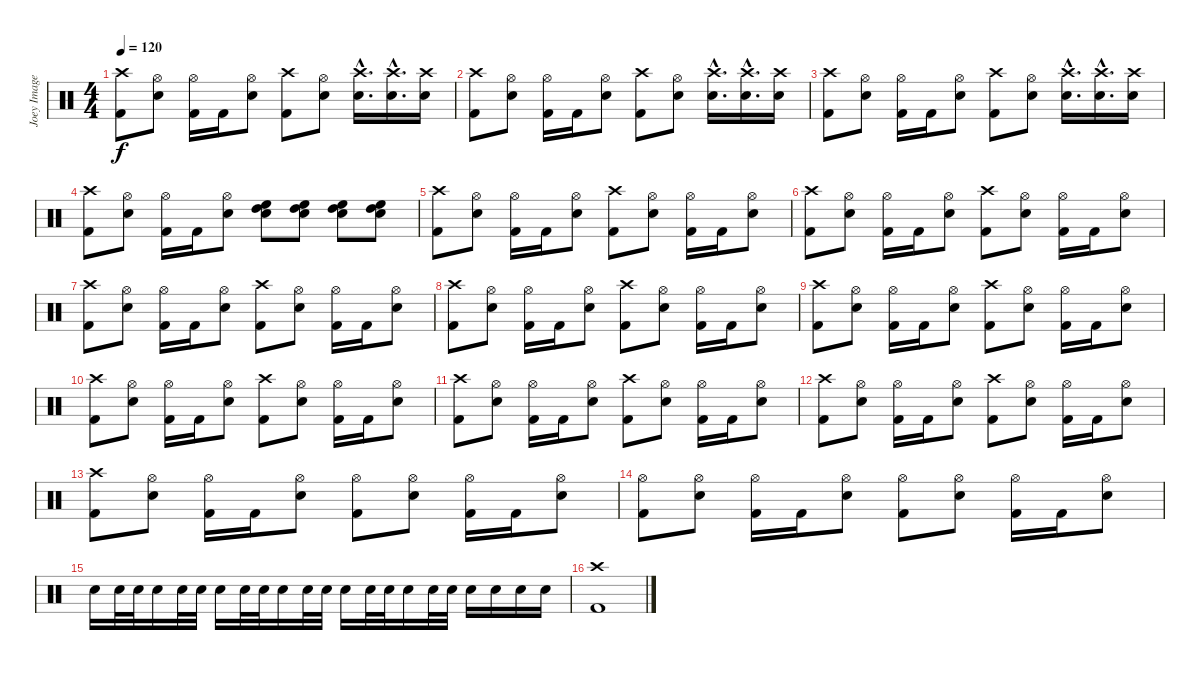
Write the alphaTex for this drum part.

\track ("Joey Image" "Joey Image") {instrument percussion}
\staff {score}
\articulation defaults
\ts (4 4)
\tempo 120
\clef neutral
\ks c
("Crash high (hit)" "Kick (hit) 2").8{dy f} ("Hi-Hat (open)" "Snare (hit) 2").8 ("Hi-Hat (open)" "Kick (hit) 2").16 "Kick (hit) 2".16 ("Hi-Hat (open)" "Snare (hit) 2").8 ("Crash high (hit)" "Kick (hit) 2").8 ("Hi-Hat (open)" "Snare (hit) 2").8 ("Crash high (hit)"{hac} "Snare (hit) 2"{hac}).16{d} ("Crash high (hit)"{hac} "Snare (hit) 2"{hac}).16{d} ("Crash high (hit)" "Snare (hit) 2").16 |
("Crash high (hit)" "Kick (hit) 2").8 ("Hi-Hat (open)" "Snare (hit) 2").8 ("Hi-Hat (open)" "Kick (hit) 2").16 "Kick (hit) 2".16 ("Hi-Hat (open)" "Snare (hit) 2").8 ("Crash high (hit)" "Kick (hit) 2").8 ("Hi-Hat (open)" "Snare (hit) 2").8 ("Crash high (hit)"{hac} "Snare (hit) 2"{hac}).16{d} ("Crash high (hit)"{hac} "Snare (hit) 2"{hac}).16{d} ("Crash high (hit)" "Snare (hit) 2").16 |
("Crash high (hit)" "Kick (hit) 2").8 ("Hi-Hat (open)" "Snare (hit) 2").8 ("Hi-Hat (open)" "Kick (hit) 2").16 "Kick (hit) 2".16 ("Hi-Hat (open)" "Snare (hit) 2").8 ("Crash high (hit)" "Kick (hit) 2").8 ("Hi-Hat (open)" "Snare (hit) 2").8 ("Crash high (hit)"{hac} "Snare (hit) 2"{hac}).16{d} ("Crash high (hit)"{hac} "Snare (hit) 2"{hac}).16{d} ("Crash high (hit)" "Snare (hit) 2").16 |
("Crash high (hit)" "Kick (hit) 2").8 ("Hi-Hat (open)" "Snare (hit) 2").8 ("Hi-Hat (open)" "Kick (hit) 2").16 "Kick (hit) 2".16 ("Hi-Hat (open)" "Snare (hit) 2").8 ("Snare (hit) 2" "High Tom (hit)" "High Floor Tom (hit)").8 ("Snare (hit) 2" "High Tom (hit)" "High Floor Tom (hit)").8 ("Snare (hit) 2" "High Tom (hit)" "High Floor Tom (hit)").8 ("Snare (hit) 2" "High Tom (hit)" "High Floor Tom (hit)").8 |
("Crash high (hit)" "Kick (hit) 2").8 ("Hi-Hat (open)" "Snare (hit) 2").8 ("Hi-Hat (open)" "Kick (hit) 2").16 "Kick (hit) 2".16 ("Hi-Hat (open)" "Snare (hit) 2").8 ("Crash high (hit)" "Kick (hit) 2").8 ("Hi-Hat (open)" "Snare (hit) 2").8 ("Hi-Hat (open)" "Kick (hit) 2").16 "Kick (hit) 2".16 ("Hi-Hat (open)" "Snare (hit) 2").8 |
("Crash high (hit)" "Kick (hit) 2").8 ("Hi-Hat (open)" "Snare (hit) 2").8 ("Hi-Hat (open)" "Kick (hit) 2").16 "Kick (hit) 2".16 ("Hi-Hat (open)" "Snare (hit) 2").8 ("Crash high (hit)" "Kick (hit) 2").8 ("Hi-Hat (open)" "Snare (hit) 2").8 ("Hi-Hat (open)" "Kick (hit) 2").16 "Kick (hit) 2".16 ("Hi-Hat (open)" "Snare (hit) 2").8 |
("Crash high (hit)" "Kick (hit) 2").8 ("Hi-Hat (open)" "Snare (hit) 2").8 ("Hi-Hat (open)" "Kick (hit) 2").16 "Kick (hit) 2".16 ("Hi-Hat (open)" "Snare (hit) 2").8 ("Crash high (hit)" "Kick (hit) 2").8 ("Hi-Hat (open)" "Snare (hit) 2").8 ("Hi-Hat (open)" "Kick (hit) 2").16 "Kick (hit) 2".16 ("Hi-Hat (open)" "Snare (hit) 2").8 |
("Crash high (hit)" "Kick (hit) 2").8 ("Hi-Hat (open)" "Snare (hit) 2").8 ("Hi-Hat (open)" "Kick (hit) 2").16 "Kick (hit) 2".16 ("Hi-Hat (open)" "Snare (hit) 2").8 ("Crash high (hit)" "Kick (hit) 2").8 ("Hi-Hat (open)" "Snare (hit) 2").8 ("Hi-Hat (open)" "Kick (hit) 2").16 "Kick (hit) 2".16 ("Hi-Hat (open)" "Snare (hit) 2").8 |
("Crash high (hit)" "Kick (hit) 2").8 ("Hi-Hat (open)" "Snare (hit) 2").8 ("Hi-Hat (open)" "Kick (hit) 2").16 "Kick (hit) 2".16 ("Hi-Hat (open)" "Snare (hit) 2").8 ("Crash high (hit)" "Kick (hit) 2").8 ("Hi-Hat (open)" "Snare (hit) 2").8 ("Hi-Hat (open)" "Kick (hit) 2").16 "Kick (hit) 2".16 ("Hi-Hat (open)" "Snare (hit) 2").8 |
("Crash high (hit)" "Kick (hit) 2").8 ("Hi-Hat (open)" "Snare (hit) 2").8 ("Hi-Hat (open)" "Kick (hit) 2").16 "Kick (hit) 2".16 ("Hi-Hat (open)" "Snare (hit) 2").8 ("Crash high (hit)" "Kick (hit) 2").8 ("Hi-Hat (open)" "Snare (hit) 2").8 ("Hi-Hat (open)" "Kick (hit) 2").16 "Kick (hit) 2".16 ("Hi-Hat (open)" "Snare (hit) 2").8 |
("Crash high (hit)" "Kick (hit) 2").8 ("Hi-Hat (open)" "Snare (hit) 2").8 ("Hi-Hat (open)" "Kick (hit) 2").16 "Kick (hit) 2".16 ("Hi-Hat (open)" "Snare (hit) 2").8 ("Crash high (hit)" "Kick (hit) 2").8 ("Hi-Hat (open)" "Snare (hit) 2").8 ("Hi-Hat (open)" "Kick (hit) 2").16 "Kick (hit) 2".16 ("Hi-Hat (open)" "Snare (hit) 2").8 |
("Crash high (hit)" "Kick (hit) 2").8 ("Hi-Hat (open)" "Snare (hit) 2").8 ("Hi-Hat (open)" "Kick (hit) 2").16 "Kick (hit) 2".16 ("Hi-Hat (open)" "Snare (hit) 2").8 ("Crash high (hit)" "Kick (hit) 2").8 ("Hi-Hat (open)" "Snare (hit) 2").8 ("Hi-Hat (open)" "Kick (hit) 2").16 "Kick (hit) 2".16 ("Hi-Hat (open)" "Snare (hit) 2").8 |
("Crash high (hit)" "Kick (hit) 2").8 ("Hi-Hat (open)" "Snare (hit) 2").8 ("Hi-Hat (open)" "Kick (hit) 2").16 "Kick (hit) 2".16 ("Hi-Hat (open)" "Snare (hit) 2").8 ("Hi-Hat (open)" "Kick (hit) 2").8 ("Hi-Hat (open)" "Snare (hit) 2").8 ("Hi-Hat (open)" "Kick (hit) 2").16 "Kick (hit) 2".16 ("Hi-Hat (open)" "Snare (hit) 2").8 |
("Hi-Hat (open)" "Kick (hit) 2").8 ("Hi-Hat (open)" "Snare (hit) 2").8 ("Hi-Hat (open)" "Kick (hit) 2").16 "Kick (hit) 2".16 ("Hi-Hat (open)" "Snare (hit) 2").8 ("Hi-Hat (open)" "Kick (hit) 2").8 ("Hi-Hat (open)" "Snare (hit) 2").8 ("Hi-Hat (open)" "Kick (hit) 2").16 "Kick (hit) 2".16 ("Hi-Hat (open)" "Snare (hit) 2").8 |
"Snare (hit) 2".16 "Snare (hit) 2".32 "Snare (hit) 2".32 "Snare (hit) 2".16 "Snare (hit) 2".32 "Snare (hit) 2".32 "Snare (hit) 2".16 "Snare (hit) 2".32 "Snare (hit) 2".32 "Snare (hit) 2".16 "Snare (hit) 2".32 "Snare (hit) 2".32 "Snare (hit) 2".16 "Snare (hit) 2".32 "Snare (hit) 2".32 "Snare (hit) 2".16 "Snare (hit) 2".32 "Snare (hit) 2".32 "Snare (hit) 2".16 "Snare (hit) 2".16 "Snare (hit) 2".16 "Snare (hit) 2".16 |
("Crash high (hit)" "Kick (hit) 2").1
